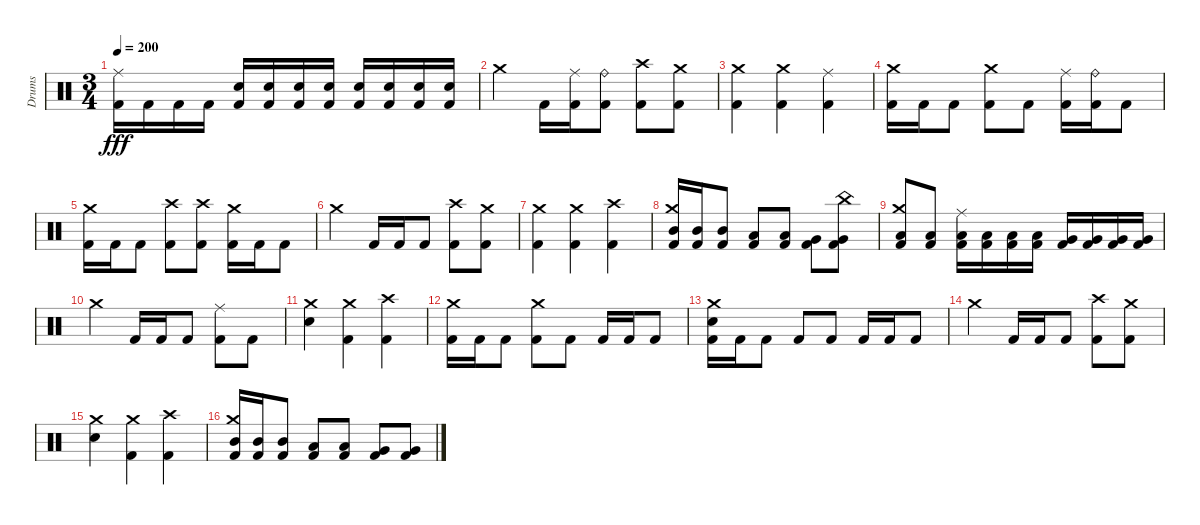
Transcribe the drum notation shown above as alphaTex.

\track ("Drums" "Drums") {instrument percussion}
\staff {score}
\articulation defaults
\ts (3 4)
\tempo 200
\clef neutral
\ks c
("Ride (middle)" "Kick (hit) 2").16{dy fff} "Kick (hit) 2".16 "Kick (hit) 2".16 "Kick (hit) 2".16 ("Snare (hit) 2" "Kick (hit) 2").16 ("Snare (hit) 2" "Kick (hit) 2").16 ("Snare (hit) 2" "Kick (hit) 2").16 ("Snare (hit) 2" "Kick (hit) 2").16 ("Snare (hit) 2" "Kick (hit) 2").16 ("Snare (hit) 2" "Kick (hit) 2").16 ("Snare (hit) 2" "Kick (hit) 2").16 ("Snare (hit) 2" "Kick (hit) 2").16 |
"Crash medium (hit)".4 "Kick (hit) 2".16 ("Ride (middle)" "Kick (hit) 2").16 ("Ride (bell)" "Kick (hit) 2").8 ("Crash high (hit)" "Kick (hit) 2").8 ("Crash medium (hit)" "Kick (hit) 2").8 |
("Crash medium (hit)" "Kick (hit) 2").4 ("Crash medium (hit)" "Kick (hit) 2").4 ("Ride (middle)" "Kick (hit) 2").4 |
("Crash medium (hit)" "Kick (hit) 2").16 "Kick (hit) 2".16 "Kick (hit) 2".8 ("Crash medium (hit)" "Kick (hit) 2").8 "Kick (hit) 2".8 ("Ride (middle)" "Kick (hit) 2").16 ("Ride (bell)" "Kick (hit) 2").16 "Kick (hit) 2".8 |
("Crash medium (hit)" "Kick (hit) 2").16 "Kick (hit) 2".16 "Kick (hit) 2".8 ("Crash high (hit)" "Kick (hit) 2").8 ("Crash high (hit)" "Kick (hit) 2").8 ("Crash medium (hit)" "Kick (hit) 2").16 "Kick (hit) 2".16 "Kick (hit) 2".8 |
"Crash medium (hit)".4 "Kick (hit) 2".16 "Kick (hit) 2".16 "Kick (hit) 2".8 ("Crash high (hit)" "Kick (hit) 2").8 ("Crash medium (hit)" "Kick (hit) 2").8 |
("Crash medium (hit)" "Kick (hit) 2").4 ("Crash medium (hit)" "Kick (hit) 2").4 ("Crash high (hit)" "Kick (hit) 2").4 |
("Crash medium (hit)" "Mid Tom (hit)" "Kick (hit) 2").16 ("Mid Tom (hit)" "Kick (hit) 2").16 ("Mid Tom (hit)" "Kick (hit) 2").8 ("Low Tom (hit)" "Kick (hit) 2").8 ("Low Tom (hit)" "Kick (hit) 2").8 ("Very Low Tom (hit)" "Kick (hit) 2").8 ("China (hit)" "Very Low Tom (hit)" "Kick (hit) 2").8 |
("Crash medium (hit)" "Low Floor Tom (hit)" "Kick (hit) 2").8 ("Low Floor Tom (hit)" "Kick (hit) 2").8 ("Ride (middle)" "Low Tom (hit)" "Kick (hit) 2").16 ("Low Tom (hit)" "Kick (hit) 2").16 ("Low Tom (hit)" "Kick (hit) 2").16 ("Low Tom (hit)" "Kick (hit) 2").16 ("Very Low Tom (hit)" "Kick (hit) 2").16 ("Very Low Tom (hit)" "Kick (hit) 2").16 ("Very Low Tom (hit)" "Kick (hit) 2").16 ("Very Low Tom (hit)" "Kick (hit) 2").16 |
"Crash medium (hit)".4 "Kick (hit) 2".16 "Kick (hit) 2".16 "Kick (hit) 2".8 ("Ride (middle)" "Kick (hit) 2").8 "Kick (hit) 2".8 |
("Crash medium (hit)" "Snare (hit) 2").4 ("Crash medium (hit)" "Kick (hit) 2").4 ("Crash high (hit)" "Kick (hit) 2").4 |
("Crash medium (hit)" "Kick (hit) 2").16 "Kick (hit) 2".16 "Kick (hit) 2".8 ("Crash medium (hit)" "Kick (hit) 2").8 "Kick (hit) 2".8 "Kick (hit) 2".16 "Kick (hit) 2".16 "Kick (hit) 2".8 |
("Crash medium (hit)" "Snare (hit) 2" "Kick (hit) 2").16 "Kick (hit) 2".16 "Kick (hit) 2".8 "Kick (hit) 2".8 "Kick (hit) 2".8 "Kick (hit) 2".16 "Kick (hit) 2".16 "Kick (hit) 2".8 |
"Crash medium (hit)".4 "Kick (hit) 2".16 "Kick (hit) 2".16 "Kick (hit) 2".8 ("Crash high (hit)" "Kick (hit) 2").8 ("Crash medium (hit)" "Kick (hit) 2").8 |
("Crash medium (hit)" "Snare (hit) 2").4 ("Crash medium (hit)" "Kick (hit) 2").4 ("Crash high (hit)" "Kick (hit) 2").4 |
("Crash medium (hit)" "Mid Tom (hit)" "Kick (hit) 2").16 ("Mid Tom (hit)" "Kick (hit) 2").16 ("Mid Tom (hit)" "Kick (hit) 2").8 ("Low Tom (hit)" "Kick (hit) 2").8 ("Low Tom (hit)" "Kick (hit) 2").8 ("Very Low Tom (hit)" "Kick (hit) 2").8 ("Very Low Tom (hit)" "Kick (hit) 2").8
